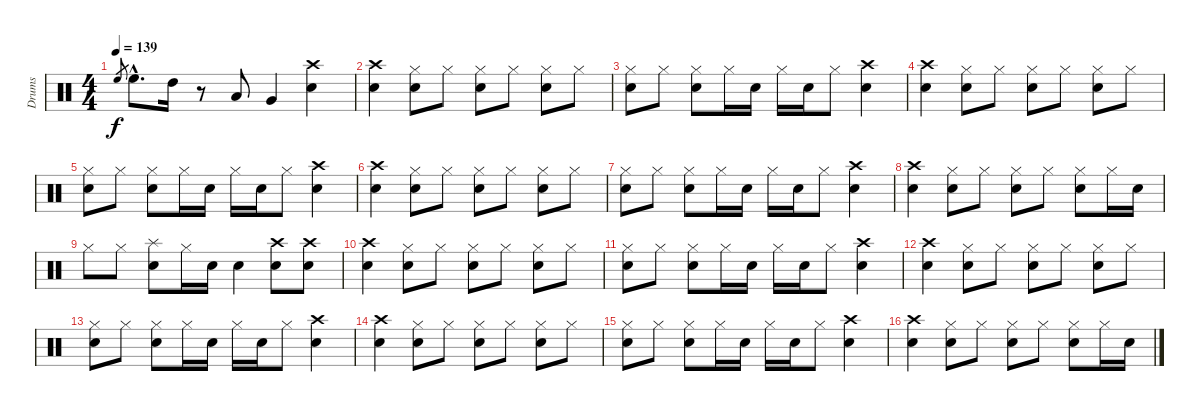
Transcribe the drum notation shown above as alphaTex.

\track ("Drums" "Drums") {instrument percussion}
\staff {score}
\articulation defaults
\ts (4 4)
\tempo 139
\clef neutral
\ks c "High Floor Tom (hit)".8{gr dy f} "High Floor Tom (hit)"{hac}.8{d} "High Tom (hit)".16
r.8 "Low Tom (hit)".8 "Very Low Tom (hit)".4 ("Crash high (hit)" "Snare (hit) 2").4 |
("Crash high (hit)" "Snare (hit) 2").4 ("Hi-Hat (closed)" "Snare (hit) 2").8 "Hi-Hat (closed)".8 ("Hi-Hat (closed)" "Snare (hit) 2").8 "Hi-Hat (closed)".8 ("Hi-Hat (closed)" "Snare (hit) 2").8 "Hi-Hat (closed)".8 |
("Hi-Hat (closed)" "Snare (hit) 2").8 "Hi-Hat (closed)".8 ("Hi-Hat (closed)" "Snare (hit) 2").8 "Hi-Hat (closed)".16 "Snare (hit) 2".16 "Hi-Hat (closed)".16 "Snare (hit) 2".16 "Hi-Hat (closed)".8 ("Crash high (hit)" "Snare (hit) 2").4 |
("Crash high (hit)" "Snare (hit) 2").4 ("Hi-Hat (closed)" "Snare (hit) 2").8 "Hi-Hat (closed)".8 ("Hi-Hat (closed)" "Snare (hit) 2").8 "Hi-Hat (closed)".8 ("Hi-Hat (closed)" "Snare (hit) 2").8 "Hi-Hat (closed)".8 |
("Hi-Hat (closed)" "Snare (hit) 2").8 "Hi-Hat (closed)".8 ("Hi-Hat (closed)" "Snare (hit) 2").8 "Hi-Hat (closed)".16 "Snare (hit) 2".16 "Hi-Hat (closed)".16 "Snare (hit) 2".16 "Hi-Hat (closed)".8 ("Crash high (hit)" "Snare (hit) 2").4 |
("Crash high (hit)" "Snare (hit) 2").4 ("Hi-Hat (closed)" "Snare (hit) 2").8 "Hi-Hat (closed)".8 ("Hi-Hat (closed)" "Snare (hit) 2").8 "Hi-Hat (closed)".8 ("Hi-Hat (closed)" "Snare (hit) 2").8 "Hi-Hat (closed)".8 |
("Hi-Hat (closed)" "Snare (hit) 2").8 "Hi-Hat (closed)".8 ("Hi-Hat (closed)" "Snare (hit) 2").8 "Hi-Hat (closed)".16 "Snare (hit) 2".16 "Hi-Hat (closed)".16 "Snare (hit) 2".16 "Hi-Hat (closed)".8 ("Crash high (hit)" "Snare (hit) 2").4 |
("Crash high (hit)" "Snare (hit) 2").4 ("Hi-Hat (closed)" "Snare (hit) 2").8 "Hi-Hat (closed)".8 ("Hi-Hat (closed)" "Snare (hit) 2").8 "Hi-Hat (closed)".8 ("Hi-Hat (closed)" "Snare (hit) 2").8 "Hi-Hat (closed)".16 "Snare (hit) 2".16 |
"Hi-Hat (closed)".8 "Hi-Hat (closed)".8 ("Splash (hit)" "Snare (hit) 2").8 "Hi-Hat (closed)".16 "Snare (hit) 2".16 "Snare (hit) 2".4 ("Crash high (hit)" "Snare (hit) 2").8 ("Crash high (hit)" "Snare (hit) 2").8 |
("Crash high (hit)" "Snare (hit) 2").4 ("Hi-Hat (closed)" "Snare (hit) 2").8 "Hi-Hat (closed)".8 ("Hi-Hat (closed)" "Snare (hit) 2").8 "Hi-Hat (closed)".8 ("Hi-Hat (closed)" "Snare (hit) 2").8 "Hi-Hat (closed)".8 |
("Hi-Hat (closed)" "Snare (hit) 2").8 "Hi-Hat (closed)".8 ("Hi-Hat (closed)" "Snare (hit) 2").8 "Hi-Hat (closed)".16 "Snare (hit) 2".16 "Hi-Hat (closed)".16 "Snare (hit) 2".16 "Hi-Hat (closed)".8 ("Crash high (hit)" "Snare (hit) 2").4 |
("Crash high (hit)" "Snare (hit) 2").4 ("Hi-Hat (closed)" "Snare (hit) 2").8 "Hi-Hat (closed)".8 ("Hi-Hat (closed)" "Snare (hit) 2").8 "Hi-Hat (closed)".8 ("Hi-Hat (closed)" "Snare (hit) 2").8 "Hi-Hat (closed)".8 |
("Hi-Hat (closed)" "Snare (hit) 2").8 "Hi-Hat (closed)".8 ("Hi-Hat (closed)" "Snare (hit) 2").8 "Hi-Hat (closed)".16 "Snare (hit) 2".16 "Hi-Hat (closed)".16 "Snare (hit) 2".16 "Hi-Hat (closed)".8 ("Crash high (hit)" "Snare (hit) 2").4 |
("Crash high (hit)" "Snare (hit) 2").4 ("Hi-Hat (closed)" "Snare (hit) 2").8 "Hi-Hat (closed)".8 ("Hi-Hat (closed)" "Snare (hit) 2").8 "Hi-Hat (closed)".8 ("Hi-Hat (closed)" "Snare (hit) 2").8 "Hi-Hat (closed)".8 |
("Hi-Hat (closed)" "Snare (hit) 2").8 "Hi-Hat (closed)".8 ("Hi-Hat (closed)" "Snare (hit) 2").8 "Hi-Hat (closed)".16 "Snare (hit) 2".16 "Hi-Hat (closed)".16 "Snare (hit) 2".16 "Hi-Hat (closed)".8 ("Crash high (hit)" "Snare (hit) 2").4 |
("Crash high (hit)" "Snare (hit) 2").4 ("Hi-Hat (closed)" "Snare (hit) 2").8 "Hi-Hat (closed)".8 ("Hi-Hat (closed)" "Snare (hit) 2").8 "Hi-Hat (closed)".8 ("Hi-Hat (closed)" "Snare (hit) 2").8 "Hi-Hat (closed)".16 "Snare (hit) 2".16
